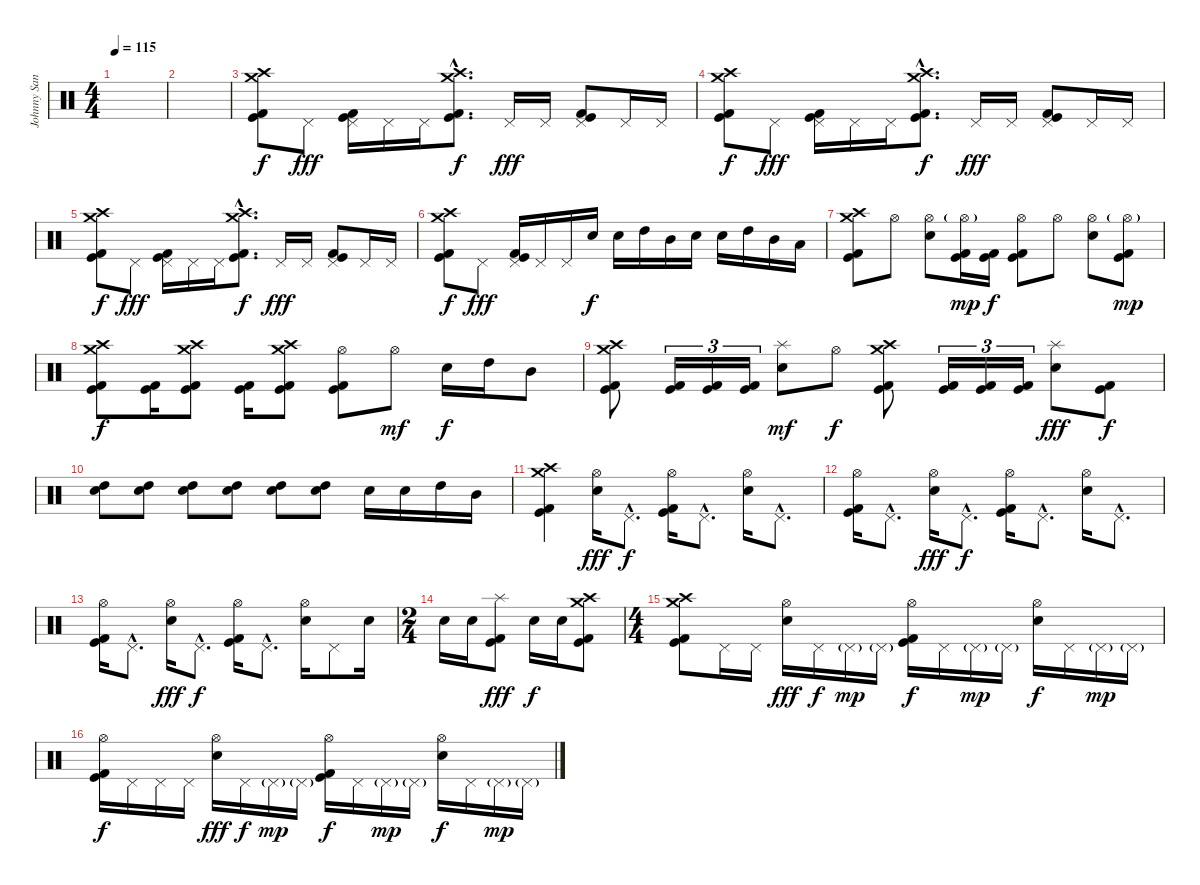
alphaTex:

\track ("Johnny Sandin" "Johnny San") {instrument percussion}
\staff {score}
\articulation defaults
\ts (4 4)
\tempo 115
\clef neutral
\ks c
|
|
("Crash medium (hit)" "Crash high (hit)" "Kick (hit) 2" "Kick (hit)").8{dy f} "Pedal Hi-Hat (hit)".8{dy fff} ("Pedal Hi-Hat (hit)" "Kick (hit) 2" "Kick (hit)").16 "Pedal Hi-Hat (hit)".16 "Pedal Hi-Hat (hit)".16 ("Crash medium (hit)"{hac} "Crash high (hit)"{hac} "Kick (hit) 2"{hac} "Kick (hit)"{hac}).8{d dy f} "Pedal Hi-Hat (hit)".16{dy fff} "Pedal Hi-Hat (hit)".16 ("Pedal Hi-Hat (hit)" "Kick (hit) 2" "Kick (hit)").8 "Pedal Hi-Hat (hit)".16 "Pedal Hi-Hat (hit)".16 |
("Crash medium (hit)" "Crash high (hit)" "Kick (hit) 2" "Kick (hit)").8{dy f} "Pedal Hi-Hat (hit)".8{dy fff} ("Pedal Hi-Hat (hit)" "Kick (hit) 2" "Kick (hit)").16 "Pedal Hi-Hat (hit)".16 "Pedal Hi-Hat (hit)".16 ("Crash medium (hit)"{hac} "Crash high (hit)"{hac} "Kick (hit) 2"{hac} "Kick (hit)"{hac}).8{d dy f} "Pedal Hi-Hat (hit)".16{dy fff} "Pedal Hi-Hat (hit)".16 ("Pedal Hi-Hat (hit)" "Kick (hit) 2" "Kick (hit)").8 "Pedal Hi-Hat (hit)".16 "Pedal Hi-Hat (hit)".16 |
("Crash medium (hit)" "Crash high (hit)" "Kick (hit) 2" "Kick (hit)").8{dy f} "Pedal Hi-Hat (hit)".8{dy fff} ("Pedal Hi-Hat (hit)" "Kick (hit) 2" "Kick (hit)").16 "Pedal Hi-Hat (hit)".16 "Pedal Hi-Hat (hit)".16 ("Crash medium (hit)"{hac} "Crash high (hit)"{hac} "Kick (hit) 2"{hac} "Kick (hit)"{hac}).8{d dy f} "Pedal Hi-Hat (hit)".16{dy fff} "Pedal Hi-Hat (hit)".16 ("Pedal Hi-Hat (hit)" "Kick (hit) 2" "Kick (hit)").8 "Pedal Hi-Hat (hit)".16 "Pedal Hi-Hat (hit)".16 |
("Crash medium (hit)" "Crash high (hit)" "Kick (hit) 2" "Kick (hit)").8{dy f} "Pedal Hi-Hat (hit)".8{dy fff} ("Pedal Hi-Hat (hit)" "Kick (hit) 2" "Kick (hit)").16 "Pedal Hi-Hat (hit)".16 "Pedal Hi-Hat (hit)".16 "Snare (hit) 2".16{dy f} "Snare (hit) 2".16 "High Tom (hit)".16 "Mid Tom (hit)".16 "Snare (hit) 2".16 "Snare (hit) 2".16 "High Tom (hit)".16 "Mid Tom (hit)".16 "Low Tom (hit)".16 |
("Crash medium (hit)" "Crash high (hit)" "Kick (hit) 2" "Kick (hit)").8 "Hi-Hat (open)".8 ("Hi-Hat (open)" "Snare (hit) 2").8 ("Hi-Hat (open)"{g} "Kick (hit) 2" "Kick (hit)").16{dy mp} ("Kick (hit) 2" "Kick (hit)").16{dy f} ("Hi-Hat (open)" "Kick (hit) 2" "Kick (hit)").8 "Hi-Hat (open)".8 ("Hi-Hat (open)" "Snare (hit) 2").8 ("Hi-Hat (open)"{g} "Kick (hit) 2" "Kick (hit)").8{dy mp} |
("Crash medium (hit)" "Crash high (hit)" "Kick (hit) 2" "Kick (hit)").8{dy f} ("Kick (hit) 2" "Kick (hit)").16 ("Crash medium (hit)" "Crash high (hit)" "Kick (hit) 2" "Kick (hit)").8 ("Kick (hit) 2" "Kick (hit)").16 ("Crash medium (hit)" "Crash high (hit)" "Kick (hit) 2" "Kick (hit)").8 ("Hi-Hat (open)" "Kick (hit) 2" "Kick (hit)").8 "Hi-Hat (open)".8{dy mf} "Snare (hit) 2".16{dy f} "High Tom (hit)".16 "Mid Tom (hit)".8 |
("Crash medium (hit)" "Crash high (hit)" "Kick (hit) 2" "Kick (hit)").8 ("Kick (hit) 2" "Kick (hit)").16{tu (3 2)} ("Kick (hit) 2" "Kick (hit)").16{tu (3 2)} ("Kick (hit) 2" "Kick (hit)").16{tu (3 2)} ("Splash (hit)" "Snare (hit) 2").8{dy mf} "Hi-Hat (open)".8{dy f} ("Crash medium (hit)" "Crash high (hit)" "Kick (hit) 2" "Kick (hit)").8 ("Kick (hit) 2" "Kick (hit)").16{tu (3 2)} ("Kick (hit) 2" "Kick (hit)").16{tu (3 2)} ("Kick (hit) 2" "Kick (hit)").16{tu (3 2)} ("Splash (hit)" "Snare (hit) 2").8{dy fff} ("Kick (hit) 2" "Kick (hit)").8{dy f} |
("High Tom (hit)" "Snare (hit) 2").8 ("High Tom (hit)" "Snare (hit) 2").8 ("High Tom (hit)" "Snare (hit) 2").8 ("High Tom (hit)" "Snare (hit) 2").8 ("High Tom (hit)" "Snare (hit) 2").8 ("High Tom (hit)" "Snare (hit) 2").8 "Snare (hit) 2".16 "Snare (hit) 2".16 "High Tom (hit)".16 "Mid Tom (hit)".16 |
("Crash medium (hit)" "Crash high (hit)" "Kick (hit) 2" "Kick (hit)").4 ("Hi-Hat (open)" "Snare (hit) 2").16{dy fff} "Pedal Hi-Hat (hit)"{hac}.8{d dy f} ("Hi-Hat (open)" "Kick (hit) 2" "Kick (hit)").16 "Pedal Hi-Hat (hit)"{hac}.8{d} ("Hi-Hat (open)" "Snare (hit) 2").16 "Pedal Hi-Hat (hit)"{hac}.8{d} |
("Hi-Hat (open)" "Kick (hit) 2" "Kick (hit)").16 "Pedal Hi-Hat (hit)"{hac}.8{d} ("Hi-Hat (open)" "Snare (hit) 2").16{dy fff} "Pedal Hi-Hat (hit)"{hac}.8{d dy f} ("Hi-Hat (open)" "Kick (hit) 2" "Kick (hit)").16 "Pedal Hi-Hat (hit)"{hac}.8{d} ("Hi-Hat (open)" "Snare (hit) 2").16 "Pedal Hi-Hat (hit)"{hac}.8{d} |
("Hi-Hat (open)" "Kick (hit) 2" "Kick (hit)").16 "Pedal Hi-Hat (hit)"{hac}.8{d} ("Hi-Hat (open)" "Snare (hit) 2").16{dy fff} "Pedal Hi-Hat (hit)"{hac}.8{d dy f} ("Hi-Hat (open)" "Kick (hit) 2" "Kick (hit)").16 "Pedal Hi-Hat (hit)"{hac}.8{d} ("Hi-Hat (open)" "Snare (hit) 2").16 "Pedal Hi-Hat (hit)".8 "Snare (hit) 2".16 |
\ts (2 4)
"Snare (hit) 2".16 "Snare (hit) 2".16 ("Splash (hit)" "Kick (hit) 2" "Kick (hit)").8{dy fff} "Snare (hit) 2".16{dy f} "Snare (hit) 2".16 ("Crash medium (hit)" "Crash high (hit)" "Kick (hit) 2" "Kick (hit)").8 |
\ts (4 4)
("Crash medium (hit)" "Crash high (hit)" "Kick (hit) 2" "Kick (hit)").8 "Pedal Hi-Hat (hit)".16 "Pedal Hi-Hat (hit)".16 ("Hi-Hat (open)" "Snare (hit) 2").16{dy fff} "Pedal Hi-Hat (hit)".16{dy f} "Pedal Hi-Hat (hit)"{g}.16{dy mp} "Pedal Hi-Hat (hit)"{g}.16 ("Hi-Hat (open)" "Kick (hit) 2" "Kick (hit)").16{dy f} "Pedal Hi-Hat (hit)".16 "Pedal Hi-Hat (hit)"{g}.16{dy mp} "Pedal Hi-Hat (hit)"{g}.16 ("Hi-Hat (open)" "Snare (hit) 2").16{dy f} "Pedal Hi-Hat (hit)".16 "Pedal Hi-Hat (hit)"{g}.16{dy mp} "Pedal Hi-Hat (hit)"{g}.16 |
("Hi-Hat (open)" "Kick (hit) 2" "Kick (hit)").16{dy f} "Pedal Hi-Hat (hit)".16 "Pedal Hi-Hat (hit)".16 "Pedal Hi-Hat (hit)".16 ("Hi-Hat (open)" "Snare (hit) 2").16{dy fff} "Pedal Hi-Hat (hit)".16{dy f} "Pedal Hi-Hat (hit)"{g}.16{dy mp} "Pedal Hi-Hat (hit)"{g}.16 ("Hi-Hat (open)" "Kick (hit) 2" "Kick (hit)").16{dy f} "Pedal Hi-Hat (hit)".16 "Pedal Hi-Hat (hit)"{g}.16{dy mp} "Pedal Hi-Hat (hit)"{g}.16 ("Hi-Hat (open)" "Snare (hit) 2").16{dy f} "Pedal Hi-Hat (hit)".16 "Pedal Hi-Hat (hit)"{g}.16{dy mp} "Pedal Hi-Hat (hit)"{g}.16
